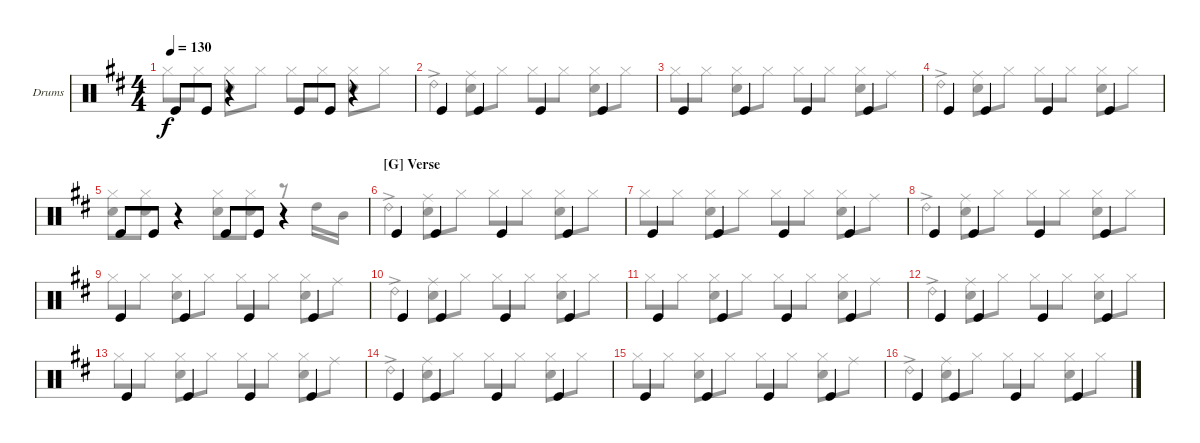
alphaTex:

\bracketExtendMode groupsimilarinstruments
\firstSystemTrackNameOrientation horizontal
\otherSystemsTrackNameOrientation horizontal
\track ("Drumkit" "Drums") {instrument percussion}
\staff {score}
\articulation defaults
\voice
\ts (4 4)
\tempo 130
\clef neutral
\scale
1.05044
\ks d "Kick (hit)".8{dy f} "Kick (hit)".8
r.4 "Kick (hit)".8 "Kick (hit)".8 r.4 |
\scale
0.949559 "Kick (hit)".4 "Kick (hit)".4 "Kick (hit)".4 "Kick (hit)".4 |
\scale
1.05044 "Kick (hit)".4 "Kick (hit)".4 "Kick (hit)".4 "Kick (hit)".4 |
\scale
0.949559 "Kick (hit)".4 "Kick (hit)".4 "Kick (hit)".4 "Kick (hit)".4 |
\scale
1.05044 "Kick (hit)".8 "Kick (hit)".8 r.4 "Kick (hit)".8 "Kick (hit)".8 r.4 |
\section ("G" "Verse")
\scale
0.949559 "Kick (hit)".4 "Kick (hit)".4 "Kick (hit)".4 "Kick (hit)".4 |
\scale
1.05044 "Kick (hit)".4 "Kick (hit)".4 "Kick (hit)".4 "Kick (hit)".4 |
\scale
0.949559 "Kick (hit)".4 "Kick (hit)".4 "Kick (hit)".4 "Kick (hit)".4 |
\scale
1.05044 "Kick (hit)".4 "Kick (hit)".4 "Kick (hit)".4 "Kick (hit)".4 |
\scale
0.949559 "Kick (hit)".4 "Kick (hit)".4 "Kick (hit)".4 "Kick (hit)".4 |
\scale
1.05044 "Kick (hit)".4 "Kick (hit)".4 "Kick (hit)".4 "Kick (hit)".4 |
\scale
0.949559 "Kick (hit)".4 "Kick (hit)".4 "Kick (hit)".4 "Kick (hit)".4 |
\scale
1.05044 "Kick (hit)".4 "Kick (hit)".4 "Kick (hit)".4 "Kick (hit)".4 |
\scale
0.949559 "Kick (hit)".4 "Kick (hit)".4 "Kick (hit)".4 "Kick (hit)".4 |
\scale
1.05044 "Kick (hit)".4 "Kick (hit)".4 "Kick (hit)".4 "Kick (hit)".4 |
\scale
0.949559 "Kick (hit)".4 "Kick (hit)".4 "Kick (hit)".4 "Kick (hit)".4
\voice
\clef neutral
\ottava regular
\simile none
\scale
1.05044
\ks d "Hi-Hat (closed)".8{dy f} "Hi-Hat (closed)".8
("Hi-Hat (closed)" "Snare (hit) 2").8 "Hi-Hat (closed)".8 "Hi-Hat (closed)".8 "Hi-Hat (closed)".8 ("Hi-Hat (closed)" "Snare (hit) 2").8 "Hi-Hat (closed)".8 |
\scale
0.949559 "Ride (bell) 2"{ac}.4 ("Snare (hit) 2" "Ride (middle)").8 "Hi-Hat (closed)".8 "Hi-Hat (closed)".8 "Hi-Hat (closed)".8 ("Hi-Hat (closed)" "Snare (hit) 2").8 "Hi-Hat (closed)".8 |
\scale
1.05044 "Hi-Hat (closed)".8 "Hi-Hat (closed)".8 ("Hi-Hat (closed)" "Snare (hit) 2").8 "Hi-Hat (closed)".8 "Hi-Hat (closed)".8 "Hi-Hat (closed)".8 ("Hi-Hat (closed)" "Snare (hit) 2").8 "Ride (middle)".8 |
\scale
0.949559 "Ride (bell) 2"{ac}.4 ("Snare (hit) 2" "Ride (middle)").8 "Hi-Hat (closed)".8 "Hi-Hat (closed)".8 "Hi-Hat (closed)".8 ("Hi-Hat (closed)" "Snare (hit) 2").8 "Hi-Hat (closed)".8 |
\scale
1.05044 ("Hi-Hat (closed)" "Snare (hit) 2").8 ("Hi-Hat (closed)" "Snare (hit) 2").8 r.4 ("Hi-Hat (closed)" "Snare (hit) 2").8 ("Hi-Hat (closed)" "Snare (hit) 2").8 r.8 "High Tom (hit)".16 "Mid Tom (hit)".16 |
\scale
0.949559 "Ride (bell) 2"{ac}.4 ("Snare (hit) 2" "Ride (middle)").8 "Hi-Hat (closed)".8 "Hi-Hat (closed)".8 "Hi-Hat (closed)".8 ("Hi-Hat (closed)" "Snare (hit) 2").8 "Hi-Hat (closed)".8 |
\scale
1.05044 "Hi-Hat (closed)".8 "Hi-Hat (closed)".8 ("Hi-Hat (closed)" "Snare (hit) 2").8 "Hi-Hat (closed)".8 "Hi-Hat (closed)".8 "Hi-Hat (closed)".8 ("Hi-Hat (closed)" "Snare (hit) 2").8 "Ride (middle)".8 |
\scale
0.949559 "Ride (bell) 2"{ac}.4 ("Snare (hit) 2" "Ride (middle)").8 "Hi-Hat (closed)".8 "Hi-Hat (closed)".8 "Hi-Hat (closed)".8 ("Hi-Hat (closed)" "Snare (hit) 2").8 "Hi-Hat (closed)".8 |
\scale
1.05044 "Hi-Hat (closed)".8 "Hi-Hat (closed)".8 ("Hi-Hat (closed)" "Snare (hit) 2").8 "Hi-Hat (closed)".8 "Hi-Hat (closed)".8 "Hi-Hat (closed)".8 ("Hi-Hat (closed)" "Snare (hit) 2").8 "Ride (middle)".8 |
\scale
0.949559 "Ride (bell) 2"{ac}.4 ("Snare (hit) 2" "Ride (middle)").8 "Hi-Hat (closed)".8 "Hi-Hat (closed)".8 "Hi-Hat (closed)".8 ("Hi-Hat (closed)" "Snare (hit) 2").8 "Hi-Hat (closed)".8 |
\scale
1.05044 "Hi-Hat (closed)".8 "Hi-Hat (closed)".8 ("Hi-Hat (closed)" "Snare (hit) 2").8 "Hi-Hat (closed)".8 "Hi-Hat (closed)".8 "Hi-Hat (closed)".8 ("Hi-Hat (closed)" "Snare (hit) 2").8 "Ride (middle)".8 |
\scale
0.949559 "Ride (bell) 2"{ac}.4 ("Snare (hit) 2" "Ride (middle)").8 "Hi-Hat (closed)".8 "Hi-Hat (closed)".8 "Hi-Hat (closed)".8 ("Hi-Hat (closed)" "Snare (hit) 2").8 "Hi-Hat (closed)".8 |
\scale
1.05044 "Hi-Hat (closed)".8 "Hi-Hat (closed)".8 ("Hi-Hat (closed)" "Snare (hit) 2").8 "Hi-Hat (closed)".8 "Hi-Hat (closed)".8 "Hi-Hat (closed)".8 ("Hi-Hat (closed)" "Snare (hit) 2").8 "Ride (middle)".8 |
\scale
0.949559 "Ride (bell) 2"{ac}.4 ("Snare (hit) 2" "Ride (middle)").8 "Hi-Hat (closed)".8 "Hi-Hat (closed)".8 "Hi-Hat (closed)".8 ("Hi-Hat (closed)" "Snare (hit) 2").8 "Hi-Hat (closed)".8 |
\scale
1.05044 "Hi-Hat (closed)".8 "Hi-Hat (closed)".8 ("Hi-Hat (closed)" "Snare (hit) 2").8 "Hi-Hat (closed)".8 "Hi-Hat (closed)".8 "Hi-Hat (closed)".8 ("Hi-Hat (closed)" "Snare (hit) 2").8 "Ride (middle)".8 |
\scale
0.949559 "Ride (bell) 2"{ac}.4 ("Snare (hit) 2" "Ride (middle)").8 "Hi-Hat (closed)".8 "Hi-Hat (closed)".8 "Hi-Hat (closed)".8 ("Hi-Hat (closed)" "Snare (hit) 2").8 "Hi-Hat (closed)".8
